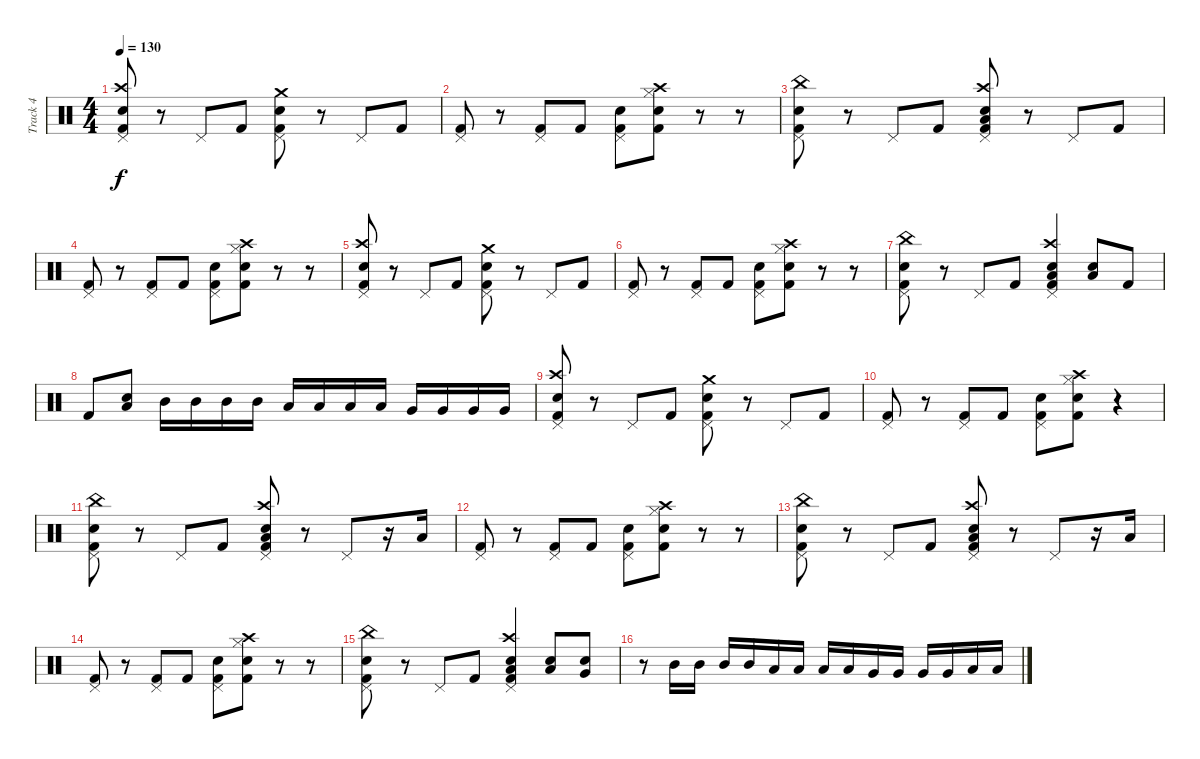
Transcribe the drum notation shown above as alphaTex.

\track ("Track 4" "Track 4") {instrument percussion}
\staff {score}
\articulation defaults
\ts (4 4)
\tempo 130
\clef neutral
\ks c
("Kick (hit) 2" "Pedal Hi-Hat (hit)" "Crash high (hit)" "Snare (hit) 2").8{dy f} r.8 "Pedal Hi-Hat (hit)".8 "Kick (hit) 2".8 ("Crash medium (hit)" "Snare (hit) 2" "Kick (hit) 2" "Pedal Hi-Hat (hit)").8 r.8 "Pedal Hi-Hat (hit)".8 "Kick (hit) 2".8 |
("Kick (hit) 2" "Pedal Hi-Hat (hit)").8 r.8 ("Pedal Hi-Hat (hit)" "Kick (hit) 2").8 "Kick (hit) 2".8 ("Pedal Hi-Hat (hit)" "Kick (hit) 2" "Electric Snare (hit)").8 ("Kick (hit) 2" "Hi-Hat (closed)" "Snare (hit) 2" "Crash high (hit)").8 r.8 r.8 |
("Kick (hit) 2" "Pedal Hi-Hat (hit)" "China (hit)" "Snare (hit) 2").8 r.8 "Pedal Hi-Hat (hit)".8 "Kick (hit) 2".8 ("Low Tom (hit)" "Snare (hit) 2" "Kick (hit) 2" "Pedal Hi-Hat (hit)" "Crash high (hit)").8 r.8 "Pedal Hi-Hat (hit)".8 "Kick (hit) 2".8 |
("Kick (hit) 2" "Pedal Hi-Hat (hit)").8 r.8 ("Pedal Hi-Hat (hit)" "Kick (hit) 2").8 "Kick (hit) 2".8 ("Pedal Hi-Hat (hit)" "Kick (hit) 2" "Electric Snare (hit)").8 ("Kick (hit) 2" "Hi-Hat (closed)" "Snare (hit) 2" "Crash high (hit)").8 r.8 r.8 |
("Kick (hit) 2" "Pedal Hi-Hat (hit)" "Crash high (hit)" "Snare (hit) 2").8 r.8 "Pedal Hi-Hat (hit)".8 "Kick (hit) 2".8 ("Crash medium (hit)" "Snare (hit) 2" "Kick (hit) 2" "Pedal Hi-Hat (hit)").8 r.8 "Pedal Hi-Hat (hit)".8 "Kick (hit) 2".8 |
("Kick (hit) 2" "Pedal Hi-Hat (hit)").8 r.8 ("Pedal Hi-Hat (hit)" "Kick (hit) 2").8 "Kick (hit) 2".8 ("Pedal Hi-Hat (hit)" "Kick (hit) 2" "Electric Snare (hit)").8 ("Kick (hit) 2" "Hi-Hat (closed)" "Snare (hit) 2" "Crash high (hit)").8 r.8 r.8 |
("Kick (hit) 2" "Pedal Hi-Hat (hit)" "China (hit)" "Snare (hit) 2").8 r.8 "Pedal Hi-Hat (hit)".8 "Kick (hit) 2".8 ("Low Tom (hit)" "Snare (hit) 2" "Kick (hit) 2" "Pedal Hi-Hat (hit)" "Crash high (hit)").4 ("Low Tom (hit)" "Snare (hit) 2").8 "Kick (hit) 2".8 |
"Kick (hit) 2".8 ("Low Tom (hit)" "Snare (hit) 2").8 "Mid Tom (hit)".16 "Mid Tom (hit)".16 "Mid Tom (hit)".16 "Mid Tom (hit)".16 "Low Tom (hit)".16 "Low Tom (hit)".16 "Low Tom (hit)".16 "Low Tom (hit)".16 "Very Low Tom (hit)".16 "Very Low Tom (hit)".16 "Very Low Tom (hit)".16 "Very Low Tom (hit)".16 |
("Kick (hit) 2" "Pedal Hi-Hat (hit)" "Crash high (hit)" "Snare (hit) 2").8 r.8 "Pedal Hi-Hat (hit)".8 "Kick (hit) 2".8 ("Crash medium (hit)" "Snare (hit) 2" "Kick (hit) 2" "Pedal Hi-Hat (hit)").8 r.8 "Pedal Hi-Hat (hit)".8 "Kick (hit) 2".8 |
("Kick (hit) 2" "Pedal Hi-Hat (hit)").8 r.8 ("Pedal Hi-Hat (hit)" "Kick (hit) 2").8 "Kick (hit) 2".8 ("Pedal Hi-Hat (hit)" "Kick (hit) 2" "Electric Snare (hit)").8 ("Kick (hit) 2" "Hi-Hat (closed)" "Snare (hit) 2" "Crash high (hit)").8 r.4 |
("Kick (hit) 2" "Pedal Hi-Hat (hit)" "China (hit)" "Snare (hit) 2").8 r.8 "Pedal Hi-Hat (hit)".8 "Kick (hit) 2".8 ("Low Tom (hit)" "Snare (hit) 2" "Kick (hit) 2" "Pedal Hi-Hat (hit)" "Crash high (hit)").8 r.8 "Pedal Hi-Hat (hit)".8 r.16 "Low Floor Tom (hit)".16 |
("Kick (hit) 2" "Pedal Hi-Hat (hit)").8 r.8 ("Pedal Hi-Hat (hit)" "Kick (hit) 2").8 "Kick (hit) 2".8 ("Pedal Hi-Hat (hit)" "Kick (hit) 2" "Electric Snare (hit)").8 ("Kick (hit) 2" "Hi-Hat (closed)" "Snare (hit) 2" "Crash high (hit)").8 r.8 r.8 |
("Kick (hit) 2" "Pedal Hi-Hat (hit)" "China (hit)" "Snare (hit) 2").8 r.8 "Pedal Hi-Hat (hit)".8 "Kick (hit) 2".8 ("Low Tom (hit)" "Snare (hit) 2" "Kick (hit) 2" "Pedal Hi-Hat (hit)" "Crash high (hit)").8 r.8 "Pedal Hi-Hat (hit)".8 r.16 "Low Floor Tom (hit)".16 |
("Kick (hit) 2" "Pedal Hi-Hat (hit)").8 r.8 ("Pedal Hi-Hat (hit)" "Kick (hit) 2").8 "Kick (hit) 2".8 ("Pedal Hi-Hat (hit)" "Kick (hit) 2" "Electric Snare (hit)").8 ("Kick (hit) 2" "Hi-Hat (closed)" "Snare (hit) 2" "Crash high (hit)").8 r.8 r.8 |
("Kick (hit) 2" "Pedal Hi-Hat (hit)" "China (hit)" "Snare (hit) 2").8 r.8 "Pedal Hi-Hat (hit)".8 "Kick (hit) 2".8 ("Low Tom (hit)" "Snare (hit) 2" "Kick (hit) 2" "Pedal Hi-Hat (hit)" "Crash high (hit)").4 ("Low Tom (hit)" "Snare (hit) 2").8 ("Very Low Tom (hit)" "Snare (hit) 2").8 |
r.8 "Mid Tom (hit)".16 "Mid Tom (hit)".16 "Mid Tom (hit)".16 "Mid Tom (hit)".16 "Low Tom (hit)".16 "Low Tom (hit)".16 "Low Tom (hit)".16 "Low Tom (hit)".16 "Very Low Tom (hit)".16 "Very Low Tom (hit)".16 "Very Low Tom (hit)".16 "Very Low Tom (hit)".16 "Low Floor Tom (hit)".16 "Low Floor Tom (hit)".16
